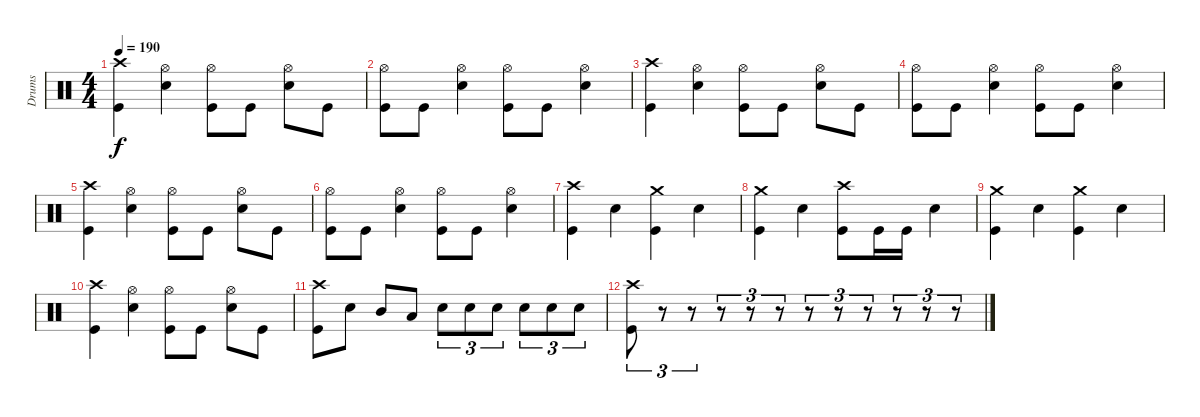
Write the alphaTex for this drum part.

\track ("Drums" "Drums") {instrument percussion}
\staff {score}
\articulation defaults
\ts (4 4)
\tempo 190
\clef neutral
\ks c
("Crash high (hit)" "Kick (hit)").4{dy f} ("Hi-Hat (open)" "Electric Snare (hit)").4 ("Hi-Hat (open)" "Kick (hit)").8 "Kick (hit)".8 ("Hi-Hat (open)" "Electric Snare (hit)").8 "Kick (hit)".8 |
("Hi-Hat (open)" "Kick (hit)").8 "Kick (hit)".8 ("Hi-Hat (open)" "Electric Snare (hit)").4 ("Hi-Hat (open)" "Kick (hit)").8 "Kick (hit)".8 ("Hi-Hat (open)" "Electric Snare (hit)").4 |
("Crash high (hit)" "Kick (hit)").4 ("Hi-Hat (open)" "Electric Snare (hit)").4 ("Hi-Hat (open)" "Kick (hit)").8 "Kick (hit)".8 ("Hi-Hat (open)" "Electric Snare (hit)").8 "Kick (hit)".8 |
("Hi-Hat (open)" "Kick (hit)").8 "Kick (hit)".8 ("Hi-Hat (open)" "Electric Snare (hit)").4 ("Hi-Hat (open)" "Kick (hit)").8 "Kick (hit)".8 ("Hi-Hat (open)" "Electric Snare (hit)").4 |
("Crash high (hit)" "Kick (hit)").4 ("Hi-Hat (open)" "Electric Snare (hit)").4 ("Hi-Hat (open)" "Kick (hit)").8 "Kick (hit)".8 ("Hi-Hat (open)" "Electric Snare (hit)").8 "Kick (hit)".8 |
("Hi-Hat (open)" "Kick (hit)").8 "Kick (hit)".8 ("Hi-Hat (open)" "Electric Snare (hit)").4 ("Hi-Hat (open)" "Kick (hit)").8 "Kick (hit)".8 ("Hi-Hat (open)" "Electric Snare (hit)").4 |
("Crash high (hit)" "Kick (hit)").4 "Electric Snare (hit)".4 ("Crash medium (hit)" "Kick (hit)").4 "Electric Snare (hit)".4 |
("Crash medium (hit)" "Kick (hit)").4 "Electric Snare (hit)".4 ("Crash high (hit)" "Kick (hit)").8 "Kick (hit)".16 "Kick (hit)".16 "Electric Snare (hit)".4 |
("Crash medium (hit)" "Kick (hit)").4 "Electric Snare (hit)".4 ("Crash medium (hit)" "Kick (hit)").4 "Electric Snare (hit)".4 |
("Crash high (hit)" "Kick (hit)").4 ("Hi-Hat (open)" "Electric Snare (hit)").4 ("Hi-Hat (open)" "Kick (hit)").8 "Kick (hit)".8 ("Hi-Hat (open)" "Electric Snare (hit)").8 "Kick (hit)".8 |
("Crash high (hit)" "Kick (hit)").8 "Electric Snare (hit)".8 "Mid Tom (hit)".8 "Low Tom (hit)".8 "Electric Snare (hit)".8{tu (3 2)} "Electric Snare (hit)".8{tu (3 2)} "Electric Snare (hit)".8{tu (3 2)} "Electric Snare (hit)".8{tu (3 2)} "Electric Snare (hit)".8{tu (3 2)} "Electric Snare (hit)".8{tu (3 2)} |
("Crash high (hit)" "Kick (hit)").8{tu (3 2)} r.8{tu (3 2)} r.8{tu (3 2)} r.8{tu (3 2)} r.8{tu (3 2)} r.8{tu (3 2)} r.8{tu (3 2)} r.8{tu (3 2)} r.8{tu (3 2)} r.8{tu (3 2)} r.8{tu (3 2)} r.8{tu (3 2)}
